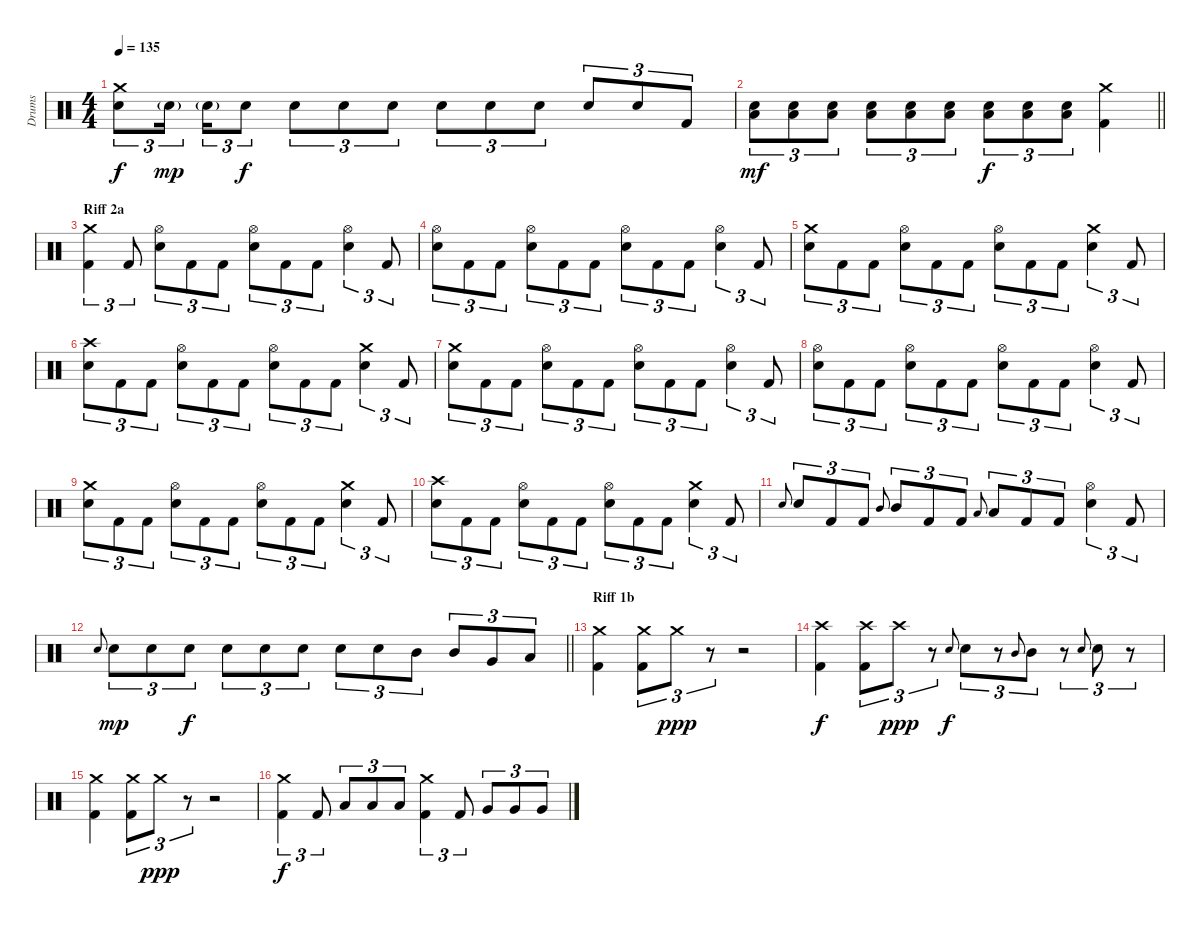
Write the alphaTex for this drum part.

\track ("Drums" "Drums") {instrument percussion}
\staff {score}
\articulation defaults
\ts (4 4)
\tempo 135
\clef neutral
\ks c
("Crash medium (hit)" "Electric Snare (hit)").8{tu (3 2) dy f} "Electric Snare (hit)"{g}.16{tu (3 2) dy mp beam splitsecondary} "Electric Snare (hit)"{g}.16{tu (3 2)} "Electric Snare (hit)".8{tu (3 2) dy f} "Electric Snare (hit)".8{tu (3 2)} "Electric Snare (hit)".8{tu (3 2)} "Electric Snare (hit)".8{tu (3 2)} "Electric Snare (hit)".8{tu (3 2)} "Electric Snare (hit)".8{tu (3 2)} "Electric Snare (hit)".8{tu (3 2)} "Electric Snare (hit)".8{tu (3 2)} "Electric Snare (hit)".8{tu (3 2)} "Kick (hit) 2".8{tu (3 2)} |
\barLineRight lightlight
("Electric Snare (hit)" "Low Floor Tom (hit)").8{tu (3 2) dy mf} ("Electric Snare (hit)" "Low Floor Tom (hit)").8{tu (3 2)} ("Electric Snare (hit)" "Low Floor Tom (hit)").8{tu (3 2)} ("Electric Snare (hit)" "Low Floor Tom (hit)").8{tu (3 2)} ("Electric Snare (hit)" "Low Floor Tom (hit)").8{tu (3 2)} ("Electric Snare (hit)" "Low Floor Tom (hit)").8{tu (3 2)} ("Electric Snare (hit)" "Low Floor Tom (hit)").8{tu (3 2) dy f} ("Electric Snare (hit)" "Low Floor Tom (hit)").8{tu (3 2)} ("Electric Snare (hit)" "Low Floor Tom (hit)").8{tu (3 2)} ("Crash medium (hit)" "Kick (hit) 2").4 |
\section ("" "Riff 2a")
("Crash medium (hit)" "Kick (hit) 2").4{tu (3 2)} "Kick (hit) 2".8{tu (3 2)} ("Hi-Hat (open)" "Electric Snare (hit)").8{tu (3 2)} "Kick (hit) 2".8{tu (3 2)} "Kick (hit) 2".8{tu (3 2)} ("Hi-Hat (open)" "Electric Snare (hit)").8{tu (3 2)} "Kick (hit) 2".8{tu (3 2)} "Kick (hit) 2".8{tu (3 2)} ("Electric Snare (hit)" "Hi-Hat (open)").4{tu (3 2)} "Kick (hit) 2".8{tu (3 2)} |
("Hi-Hat (open)" "Electric Snare (hit)").8{tu (3 2)} "Kick (hit) 2".8{tu (3 2)} "Kick (hit) 2".8{tu (3 2)} ("Hi-Hat (open)" "Electric Snare (hit)").8{tu (3 2)} "Kick (hit) 2".8{tu (3 2)} "Kick (hit) 2".8{tu (3 2)} ("Hi-Hat (open)" "Electric Snare (hit)").8{tu (3 2)} "Kick (hit) 2".8{tu (3 2)} "Kick (hit) 2".8{tu (3 2)} ("Electric Snare (hit)" "Hi-Hat (open)").4{tu (3 2)} "Kick (hit) 2".8{tu (3 2)} |
("Crash medium (hit)" "Electric Snare (hit)").8{tu (3 2)} "Kick (hit) 2".8{tu (3 2)} "Kick (hit) 2".8{tu (3 2)} ("Hi-Hat (open)" "Electric Snare (hit)").8{tu (3 2)} "Kick (hit) 2".8{tu (3 2)} "Kick (hit) 2".8{tu (3 2)} ("Hi-Hat (open)" "Electric Snare (hit)").8{tu (3 2)} "Kick (hit) 2".8{tu (3 2)} "Kick (hit) 2".8{tu (3 2)} ("Electric Snare (hit)" "Crash medium (hit)").4{tu (3 2)} "Kick (hit) 2".8{tu (3 2)} |
("Crash high (hit)" "Electric Snare (hit)").8{tu (3 2)} "Kick (hit) 2".8{tu (3 2)} "Kick (hit) 2".8{tu (3 2)} ("Hi-Hat (open)" "Electric Snare (hit)").8{tu (3 2)} "Kick (hit) 2".8{tu (3 2)} "Kick (hit) 2".8{tu (3 2)} ("Hi-Hat (open)" "Electric Snare (hit)").8{tu (3 2)} "Kick (hit) 2".8{tu (3 2)} "Kick (hit) 2".8{tu (3 2)} ("Electric Snare (hit)" "Crash medium (hit)").4{tu (3 2)} "Kick (hit) 2".8{tu (3 2)} |
("Crash medium (hit)" "Electric Snare (hit)").8{tu (3 2)} "Kick (hit) 2".8{tu (3 2)} "Kick (hit) 2".8{tu (3 2)} ("Hi-Hat (open)" "Electric Snare (hit)").8{tu (3 2)} "Kick (hit) 2".8{tu (3 2)} "Kick (hit) 2".8{tu (3 2)} ("Hi-Hat (open)" "Electric Snare (hit)").8{tu (3 2)} "Kick (hit) 2".8{tu (3 2)} "Kick (hit) 2".8{tu (3 2)} ("Electric Snare (hit)" "Hi-Hat (open)").4{tu (3 2)} "Kick (hit) 2".8{tu (3 2)} |
("Hi-Hat (open)" "Electric Snare (hit)").8{tu (3 2)} "Kick (hit) 2".8{tu (3 2)} "Kick (hit) 2".8{tu (3 2)} ("Hi-Hat (open)" "Electric Snare (hit)").8{tu (3 2)} "Kick (hit) 2".8{tu (3 2)} "Kick (hit) 2".8{tu (3 2)} ("Hi-Hat (open)" "Electric Snare (hit)").8{tu (3 2)} "Kick (hit) 2".8{tu (3 2)} "Kick (hit) 2".8{tu (3 2)} ("Electric Snare (hit)" "Hi-Hat (open)").4{tu (3 2)} "Kick (hit) 2".8{tu (3 2)} |
("Crash medium (hit)" "Electric Snare (hit)").8{tu (3 2)} "Kick (hit) 2".8{tu (3 2)} "Kick (hit) 2".8{tu (3 2)} ("Hi-Hat (open)" "Electric Snare (hit)").8{tu (3 2)} "Kick (hit) 2".8{tu (3 2)} "Kick (hit) 2".8{tu (3 2)} ("Hi-Hat (open)" "Electric Snare (hit)").8{tu (3 2)} "Kick (hit) 2".8{tu (3 2)} "Kick (hit) 2".8{tu (3 2)} ("Electric Snare (hit)" "Crash medium (hit)").4{tu (3 2)} "Kick (hit) 2".8{tu (3 2)} |
("Crash high (hit)" "Electric Snare (hit)").8{tu (3 2)} "Kick (hit) 2".8{tu (3 2)} "Kick (hit) 2".8{tu (3 2)} ("Hi-Hat (open)" "Electric Snare (hit)").8{tu (3 2)} "Kick (hit) 2".8{tu (3 2)} "Kick (hit) 2".8{tu (3 2)} ("Hi-Hat (open)" "Electric Snare (hit)").8{tu (3 2)} "Kick (hit) 2".8{tu (3 2)} "Kick (hit) 2".8{tu (3 2)} ("Electric Snare (hit)" "Crash medium (hit)").4{tu (3 2)} "Kick (hit) 2".8{tu (3 2)} |
"Electric Snare (hit)".8{gr onbeat} "Electric Snare (hit)".8{tu (3 2)} "Kick (hit) 2".8{tu (3 2)} "Kick (hit) 2".8{tu (3 2)} "Mid Tom (hit)".8{gr onbeat} "Mid Tom (hit)".8{tu (3 2)} "Kick (hit) 2".8{tu (3 2)} "Kick (hit) 2".8{tu (3 2)} "Low Tom (hit)".8{gr onbeat} "Low Tom (hit)".8{tu (3 2)} "Kick (hit) 2".8{tu (3 2)} "Kick (hit) 2".8{tu (3 2)} ("Electric Snare (hit)" "Hi-Hat (open)").4{tu (3 2)} "Kick (hit) 2".8{tu (3 2)} |
\barLineRight lightlight "Electric Snare (hit)".8{gr onbeat} "Electric Snare (hit)".8{tu (3 2) dy mp} "Electric Snare (hit)".8{tu (3 2)} "Electric Snare (hit)".8{tu (3 2) dy f} "Electric Snare (hit)".8{tu (3 2)} "Electric Snare (hit)".8{tu (3 2)} "Electric Snare (hit)".8{tu (3 2)} "Electric Snare (hit)".8{tu (3 2)} "Electric Snare (hit)".8{tu (3 2)} "Mid Tom (hit)".8{tu (3 2)} "Mid Tom (hit)".8{tu (3 2)} "Very Low Tom (hit)".8{tu (3 2)} "Low Floor Tom (hit)".8{tu (3 2)}
|
\section ("" "Riff 1b")
("Kick (hit) 2" "Crash medium (hit)").4 ("Crash medium (hit)" "Kick (hit) 2").8{tu (3 2)} "Crash medium (hit)".8{tu (3 2) dy ppp} r.8{tu (3 2)} r.2 |
("Kick (hit) 2" "Crash high (hit)").4{dy f} ("Crash high (hit)" "Kick (hit) 2").8{tu (3 2)} "Crash high (hit)".8{tu (3 2) dy ppp} r.8{tu (3 2)} "Electric Snare (hit)".8{gr onbeat dy f} "Electric Snare (hit)".8{tu (3 2)} r.8{tu (3 2)} "Mid Tom (hit)".8{gr onbeat} "Mid Tom (hit)".8{tu (3 2)} r.8{tu (3 2)} "Electric Snare (hit)".8{gr onbeat} "Electric Snare (hit)".8{tu (3 2)} r.8{tu (3 2)} |
("Kick (hit) 2" "Crash medium (hit)").4 ("Crash medium (hit)" "Kick (hit) 2").8{tu (3 2)} "Crash medium (hit)".8{tu (3 2) dy ppp} r.8{tu (3 2)} r.2 |
("Crash medium (hit)" "Kick (hit) 2").4{tu (3 2) dy f} "Kick (hit) 2".8{tu (3 2)} "Low Tom (hit)".8{tu (3 2)} "Low Tom (hit)".8{tu (3 2)} "Low Tom (hit)".8{tu (3 2)} ("Crash medium (hit)" "Kick (hit) 2").4{tu (3 2)} "Kick (hit) 2".8{tu (3 2)} "Very Low Tom (hit)".8{tu (3 2)} "Very Low Tom (hit)".8{tu (3 2)} "Very Low Tom (hit)".8{tu (3 2)}
